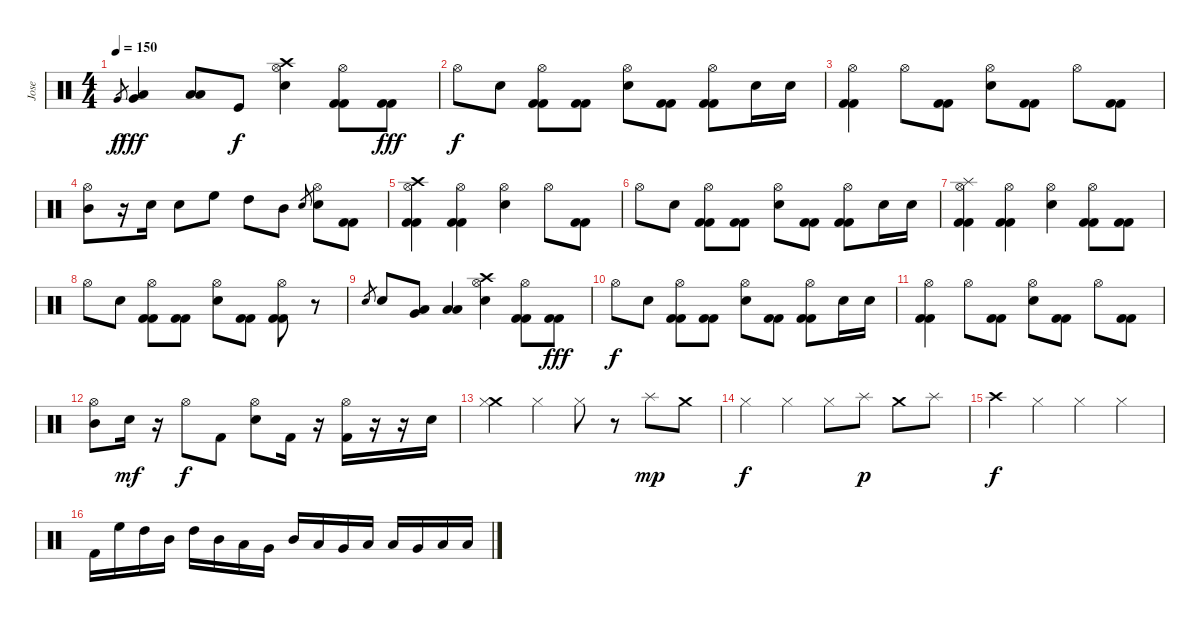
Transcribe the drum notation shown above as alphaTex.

\track ("Jose" "Jose") {instrument percussion}
\staff {score}
\articulation defaults
\ts (4 4)
\tempo 150
\clef neutral
\ks c "Very Low Tom (hit)".8{gr dy f}
("Low Tom (hit)" "Very Low Tom (hit)").4{dy fff} ("Low Tom (hit)" "Low Floor Tom (hit)").8 "Kick (hit)".8{dy f} ("Hi-Hat (open)" "Crash high (hit)" "Electric Snare (hit)").4 ("Hi-Hat (open)" "Kick (hit) 2" "Kick (hit) 2").8 ("Kick (hit) 2" "Kick (hit) 2").8{dy fff} |
"Hi-Hat (open)".8{dy f} "Electric Snare (hit)".8 ("Hi-Hat (open)" "Kick (hit) 2" "Kick (hit) 2").8 ("Kick (hit) 2" "Kick (hit) 2").8 ("Hi-Hat (open)" "Electric Snare (hit)").8 ("Kick (hit) 2" "Kick (hit) 2").8 ("Hi-Hat (open)" "Kick (hit) 2" "Kick (hit) 2").8 "Electric Snare (hit)".16 "Electric Snare (hit)".16 |
("Hi-Hat (open)" "Kick (hit) 2" "Kick (hit) 2").4 "Hi-Hat (open)".8 ("Kick (hit) 2" "Kick (hit) 2").8 ("Hi-Hat (open)" "Electric Snare (hit)").8 ("Kick (hit) 2" "Kick (hit) 2").8 "Hi-Hat (open)".8 ("Kick (hit) 2" "Kick (hit) 2").8 |
("Hi-Hat (open)" "Mid Tom (hit)").8 r.16 "Electric Snare (hit)".16 "Electric Snare (hit)".8 "High Floor Tom (hit)".8 "High Tom (hit)".8 "Mid Tom (hit)".8 "Electric Snare (hit)".8{gr} ("Hi-Hat (open)" "Electric Snare (hit)").8 ("Kick (hit) 2" "Kick (hit) 2").8 |
("Hi-Hat (open)" "Crash high (hit)" "Kick (hit) 2" "Kick (hit) 2").4 ("Hi-Hat (open)" "Kick (hit) 2" "Kick (hit) 2").4 ("Hi-Hat (open)" "Electric Snare (hit)").4 "Hi-Hat (open)".8 ("Kick (hit) 2" "Kick (hit) 2").8 |
"Hi-Hat (open)".8 "Electric Snare (hit)".8 ("Hi-Hat (open)" "Kick (hit) 2" "Kick (hit) 2").8 ("Kick (hit) 2" "Kick (hit) 2").8 ("Hi-Hat (open)" "Electric Snare (hit)").8 ("Kick (hit) 2" "Kick (hit) 2").8 ("Hi-Hat (open)" "Kick (hit) 2" "Kick (hit) 2").8 "Electric Snare (hit)".16 "Electric Snare (hit)".16 |
("Hi-Hat (open)" "Splash (hit)" "Kick (hit) 2" "Kick (hit) 2").4 ("Hi-Hat (open)" "Kick (hit) 2" "Kick (hit) 2").4 ("Hi-Hat (open)" "Electric Snare (hit)").4 ("Hi-Hat (open)" "Kick (hit) 2" "Kick (hit) 2").8 ("Kick (hit) 2" "Kick (hit) 2").8 |
"Hi-Hat (open)".8 "Electric Snare (hit)".8 ("Hi-Hat (open)" "Kick (hit) 2" "Kick (hit) 2").8 ("Kick (hit) 2" "Kick (hit) 2").8 ("Hi-Hat (open)" "Electric Snare (hit)").8 ("Kick (hit) 2" "Kick (hit) 2").8 ("Hi-Hat (open)" "Kick (hit) 2" "Kick (hit) 2").8 r.8 |
"Electric Snare (hit)".8{gr} "Electric Snare (hit)".8 ("Very Low Tom (hit)" "Low Tom (hit)").8 ("Low Floor Tom (hit)" "Low Tom (hit)").4 ("Hi-Hat (open)" "Crash high (hit)" "Electric Snare (hit)").4 ("Hi-Hat (open)" "Kick (hit) 2" "Kick (hit) 2").8 ("Kick (hit) 2" "Kick (hit) 2").8{dy fff} |
"Hi-Hat (open)".8{dy f} "Electric Snare (hit)".8 ("Hi-Hat (open)" "Kick (hit) 2" "Kick (hit) 2").8 ("Kick (hit) 2" "Kick (hit) 2").8 ("Hi-Hat (open)" "Electric Snare (hit)").8 ("Kick (hit) 2" "Kick (hit) 2").8 ("Hi-Hat (open)" "Kick (hit) 2" "Kick (hit) 2").8 "Electric Snare (hit)".16 "Electric Snare (hit)".16 |
("Hi-Hat (open)" "Kick (hit) 2" "Kick (hit) 2").4 "Hi-Hat (open)".8 ("Kick (hit) 2" "Kick (hit) 2").8 ("Hi-Hat (open)" "Electric Snare (hit)").8 ("Kick (hit) 2" "Kick (hit) 2").8 "Hi-Hat (open)".8 ("Kick (hit) 2" "Kick (hit) 2").8 |
("Hi-Hat (open)" "Mid Tom (hit)").8 "Electric Snare (hit)".16{dy mf} r.16 "Hi-Hat (open)".8{dy f} "Kick (hit) 2".8 ("Hi-Hat (open)" "Electric Snare (hit)").8 "Kick (hit) 2".16 r.16 ("Hi-Hat (open)" "Kick (hit) 2").16 r.16 r.16 "Electric Snare (hit)".16 |
("Crash medium (hit)" "Hi-Hat (closed)").4 "Hi-Hat (closed)".4 "Hi-Hat (closed)".8 r.8 "Splash (hit)".8{dy mp} "Crash medium (hit)".8 |
"Hi-Hat (closed)".4{dy f} "Hi-Hat (closed)".4 "Hi-Hat (closed)".8 "Splash (hit)".8{dy p} "Crash medium (hit)".8 "Splash (hit)".8 |
"Crash high (hit)".4{dy f} "Hi-Hat (closed)".4 "Hi-Hat (closed)".4 "Hi-Hat (closed)".4 |
"Kick (hit) 2".16 "High Floor Tom (hit)".16 "High Tom (hit)".16 "Mid Tom (hit)".16 "High Tom (hit)".16 "Mid Tom (hit)".16 "Low Tom (hit)".16 "Very Low Tom (hit)".16 "Mid Tom (hit)".16 "Low Tom (hit)".16 "Very Low Tom (hit)".16 "Low Floor Tom (hit)".16 "Low Tom (hit)".16 "Very Low Tom (hit)".16 "Low Floor Tom (hit)".16 "Low Floor Tom (hit)".16
